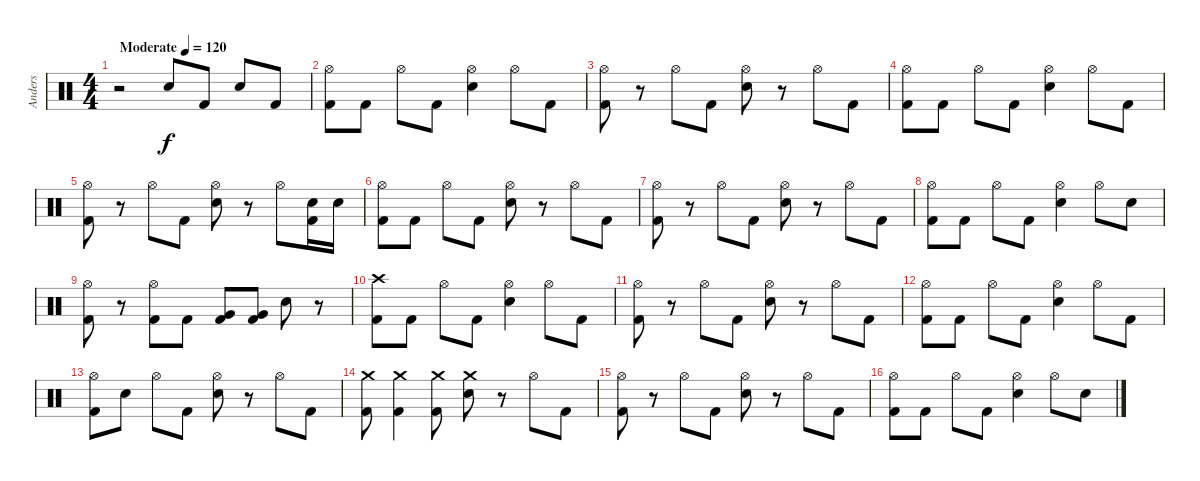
\track ("Anders" "Anders") {instrument percussion}
\staff {score}
\articulation defaults
\ts (4 4)
\tempo (120 "Moderate")
\clef neutral
\ks c
r.2{dy f} "Electric Snare (hit)".8 "Kick (hit) 2".8 "Electric Snare (hit)".8 "Kick (hit) 2".8 |
("Hi-Hat (open)" "Kick (hit) 2").8 "Kick (hit) 2".8 "Hi-Hat (open)".8 "Kick (hit) 2".8 ("Hi-Hat (open)" "Electric Snare (hit)").4 "Hi-Hat (open)".8 "Kick (hit) 2".8 |
("Hi-Hat (open)" "Kick (hit) 2").8 r.8 "Hi-Hat (open)".8 "Kick (hit) 2".8 ("Hi-Hat (open)" "Electric Snare (hit)").8 r.8 "Hi-Hat (open)".8 "Kick (hit) 2".8 |
("Hi-Hat (open)" "Kick (hit) 2").8 "Kick (hit) 2".8 "Hi-Hat (open)".8 "Kick (hit) 2".8 ("Hi-Hat (open)" "Electric Snare (hit)").4 "Hi-Hat (open)".8 "Kick (hit) 2".8 |
("Hi-Hat (open)" "Kick (hit) 2").8 r.8 "Hi-Hat (open)".8 "Kick (hit) 2".8 ("Hi-Hat (open)" "Electric Snare (hit)").8 r.8 "Hi-Hat (open)".8 ("Kick (hit) 2" "Electric Snare (hit)").16 "Electric Snare (hit)".16 |
("Hi-Hat (open)" "Kick (hit) 2").8 "Kick (hit) 2".8 "Hi-Hat (open)".8 "Kick (hit) 2".8 ("Hi-Hat (open)" "Electric Snare (hit)").8 r.8 "Hi-Hat (open)".8 "Kick (hit) 2".8 |
("Hi-Hat (open)" "Kick (hit) 2").8 r.8 "Hi-Hat (open)".8 "Kick (hit) 2".8 ("Hi-Hat (open)" "Electric Snare (hit)").8 r.8 "Hi-Hat (open)".8 "Kick (hit) 2".8 |
("Hi-Hat (open)" "Kick (hit) 2").8 "Kick (hit) 2".8 "Hi-Hat (open)".8 "Kick (hit) 2".8 ("Hi-Hat (open)" "Electric Snare (hit)").4 "Hi-Hat (open)".8 "Electric Snare (hit)".8 |
("Hi-Hat (open)" "Kick (hit) 2").8 r.8 ("Hi-Hat (open)" "Kick (hit) 2").8 "Kick (hit) 2".8 ("Very Low Tom (hit)" "Kick (hit) 2").8 ("Very Low Tom (hit)" "Kick (hit) 2").8 "Electric Snare (hit)".8 r.8 |
("Crash high (hit)" "Kick (hit) 2").8 "Kick (hit) 2".8 "Hi-Hat (open)".8 "Kick (hit) 2".8 ("Hi-Hat (open)" "Electric Snare (hit)").4 "Hi-Hat (open)".8 "Kick (hit) 2".8 |
("Hi-Hat (open)" "Kick (hit) 2").8 r.8 "Hi-Hat (open)".8 "Kick (hit) 2".8 ("Hi-Hat (open)" "Electric Snare (hit)").8 r.8 "Hi-Hat (open)".8 "Kick (hit) 2".8 |
("Hi-Hat (open)" "Kick (hit) 2").8 "Kick (hit) 2".8 "Hi-Hat (open)".8 "Kick (hit) 2".8 ("Hi-Hat (open)" "Electric Snare (hit)").4 "Hi-Hat (open)".8 "Kick (hit) 2".8 |
("Hi-Hat (open)" "Kick (hit) 2").8 "Electric Snare (hit)".8 "Hi-Hat (open)".8 "Kick (hit) 2".8 ("Hi-Hat (open)" "Electric Snare (hit)").8 r.8 "Hi-Hat (open)".8 "Kick (hit) 2".8 |
("Crash medium (hit)" "Kick (hit) 2").8 ("Crash medium (hit)" "Kick (hit) 2").4 ("Crash medium (hit)" "Kick (hit) 2").8 ("Crash medium (hit)" "Electric Snare (hit)").8 r.8 "Hi-Hat (open)".8 "Kick (hit) 2".8 |
("Hi-Hat (open)" "Kick (hit) 2").8 r.8 "Hi-Hat (open)".8 "Kick (hit) 2".8 ("Hi-Hat (open)" "Electric Snare (hit)").8 r.8 "Hi-Hat (open)".8 "Kick (hit) 2".8 |
("Hi-Hat (open)" "Kick (hit) 2").8 "Kick (hit) 2".8 "Hi-Hat (open)".8 "Kick (hit) 2".8 ("Hi-Hat (open)" "Electric Snare (hit)").4 "Hi-Hat (open)".8 "Electric Snare (hit)".8
